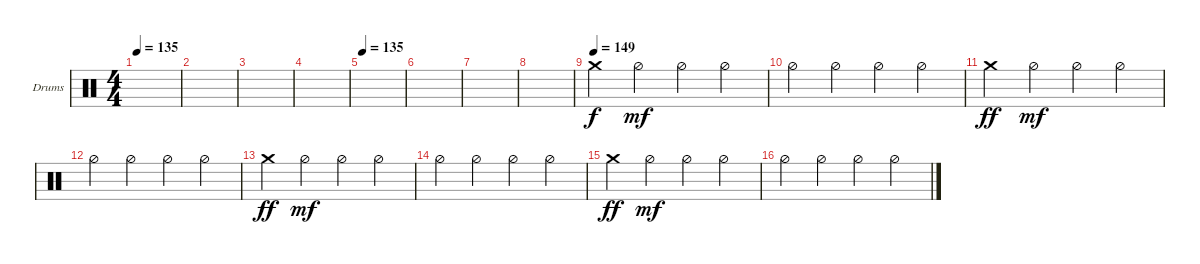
\defaultSystemsLayout 4
\bracketExtendMode groupsimilarinstruments
\firstSystemTrackNameOrientation horizontal
\otherSystemsTrackNameOrientation horizontal
\track ("Drumkit" "Drums") {instrument percussion}
\staff {score}
\articulation defaults
\ts (4 4)
\tempo 135
\clef neutral
\scale
0.472222
\ks c
|
\scale
0.263889 |
\scale
0.263889 |
\scale
0.333333 |
\tempo 135
\scale
0.333333 |
\scale
0.333333 |
\scale
0.333333 |
\scale
0.333333 |
\tempo 149
\scale
0.333333 "Crash medium (hit)".4 "Hi-Hat (half)".4{dy mf} "Hi-Hat (half)".4 "Hi-Hat (half)".4 |
\scale
0.333333 "Hi-Hat (half)".4 "Hi-Hat (half)".4 "Hi-Hat (half)".4 "Hi-Hat (half)".4 |
\scale
0.333333 "Crash medium (hit)".4{dy ff} "Hi-Hat (half)".4{dy mf} "Hi-Hat (half)".4 "Hi-Hat (half)".4 |
\scale
0.333333 "Hi-Hat (half)".4 "Hi-Hat (half)".4 "Hi-Hat (half)".4 "Hi-Hat (half)".4 |
\scale
0.333333 "Crash medium (hit)".4{dy ff} "Hi-Hat (half)".4{dy mf} "Hi-Hat (half)".4 "Hi-Hat (half)".4 |
\scale
0.333333 "Hi-Hat (half)".4 "Hi-Hat (half)".4 "Hi-Hat (half)".4 "Hi-Hat (half)".4 |
\scale
0.333333 "Crash medium (hit)".4{dy ff} "Hi-Hat (half)".4{dy mf} "Hi-Hat (half)".4 "Hi-Hat (half)".4 |
\scale
0.333333 "Hi-Hat (half)".4 "Hi-Hat (half)".4 "Hi-Hat (half)".4 "Hi-Hat (half)".4
